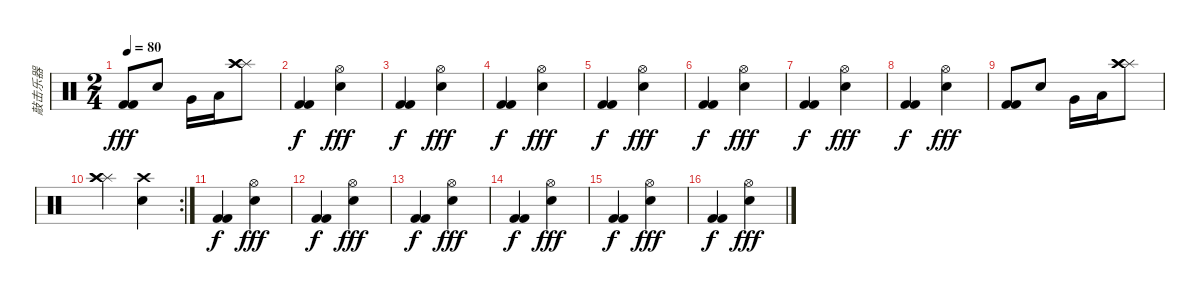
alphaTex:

\track ("敲击乐器" "敲击乐器") {instrument percussion}
\staff {score}
\articulation defaults
\ts (2 4)
\tempo 80
\clef neutral
\ks c
("Kick (hit) 2" "Kick (hit) 2").8{dy fff} "Snare (hit) 2".8 "Very Low Tom (hit)".16 "Low Floor Tom (hit)".16 ("Splash (hit)" "Crash high (hit)" "Crash high (hit)").8 |
("Kick (hit) 2" "Kick (hit) 2").4{dy f} ("Hi-Hat (open)" "Snare (hit) 2").4{dy fff} |
("Kick (hit) 2" "Kick (hit) 2").4{dy f} ("Hi-Hat (open)" "Snare (hit) 2").4{dy fff} |
("Kick (hit) 2" "Kick (hit) 2").4{dy f} ("Hi-Hat (open)" "Snare (hit) 2").4{dy fff} |
("Kick (hit) 2" "Kick (hit) 2").4{dy f} ("Hi-Hat (open)" "Snare (hit) 2").4{dy fff} |
("Kick (hit) 2" "Kick (hit) 2").4{dy f} ("Hi-Hat (open)" "Snare (hit) 2").4{dy fff} |
("Kick (hit) 2" "Kick (hit) 2").4{dy f} ("Hi-Hat (open)" "Snare (hit) 2").4{dy fff} |
("Kick (hit) 2" "Kick (hit) 2").4{dy f} ("Hi-Hat (open)" "Snare (hit) 2").4{dy fff} |
("Kick (hit) 2" "Kick (hit) 2").8 "Snare (hit) 2".8 "Very Low Tom (hit)".16 "Low Floor Tom (hit)".16 ("Splash (hit)" "Crash high (hit)" "Crash high (hit)").8 |
\rc 2
("Splash (hit)" "Crash high (hit)" "Crash high (hit)").4 ("Crash high (hit)" "Snare (hit) 2").4 |
("Kick (hit) 2" "Kick (hit) 2").4{dy f} ("Hi-Hat (open)" "Snare (hit) 2").4{dy fff} |
("Kick (hit) 2" "Kick (hit) 2").4{dy f} ("Hi-Hat (open)" "Snare (hit) 2").4{dy fff} |
("Kick (hit) 2" "Kick (hit) 2").4{dy f} ("Hi-Hat (open)" "Snare (hit) 2").4{dy fff} |
("Kick (hit) 2" "Kick (hit) 2").4{dy f} ("Hi-Hat (open)" "Snare (hit) 2").4{dy fff} |
("Kick (hit) 2" "Kick (hit) 2").4{dy f} ("Hi-Hat (open)" "Snare (hit) 2").4{dy fff} |
("Kick (hit) 2" "Kick (hit) 2").4{dy f} ("Hi-Hat (open)" "Snare (hit) 2").4{dy fff}
